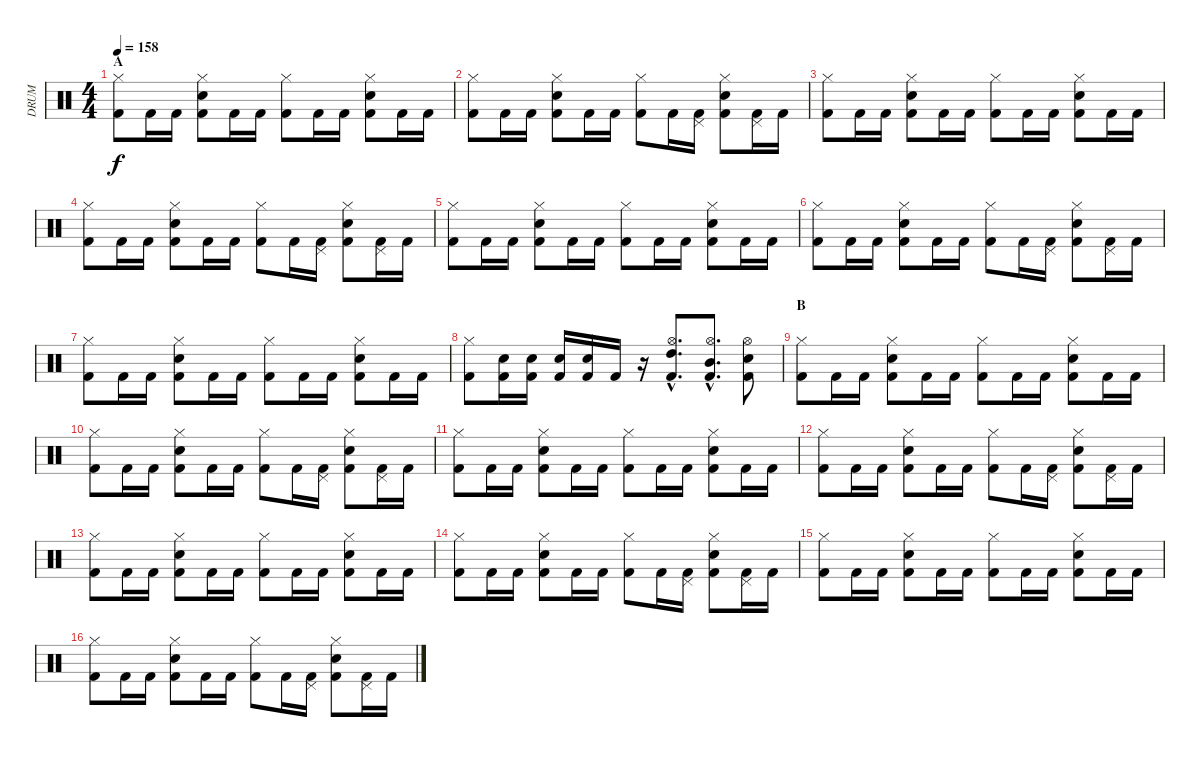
\track ("DRUM" "DRUM") {instrument percussion}
\staff {score}
\articulation defaults
\ts (4 4)
\section ("" "A")
\tempo 158
\clef neutral
\ks c
("Hi-Hat (closed)" "Kick (hit) 2").8{dy f} "Kick (hit) 2".16 "Kick (hit) 2".16 ("Hi-Hat (closed)" "Snare (hit) 2" "Kick (hit) 2").8 "Kick (hit) 2".16 "Kick (hit) 2".16 ("Hi-Hat (closed)" "Kick (hit) 2").8 "Kick (hit) 2".16 "Kick (hit) 2".16 ("Hi-Hat (closed)" "Snare (hit) 2" "Kick (hit) 2").8 "Kick (hit) 2".16 "Kick (hit) 2".16 |
("Hi-Hat (closed)" "Kick (hit) 2").8 "Kick (hit) 2".16 "Kick (hit) 2".16 ("Hi-Hat (closed)" "Snare (hit) 2" "Kick (hit) 2").8 "Kick (hit) 2".16 "Kick (hit) 2".16 ("Hi-Hat (closed)" "Kick (hit) 2").8 "Kick (hit) 2".16 ("Pedal Hi-Hat (hit)" "Kick (hit) 2").16 ("Hi-Hat (closed)" "Snare (hit) 2" "Kick (hit) 2").8 ("Pedal Hi-Hat (hit)" "Kick (hit) 2").16 "Kick (hit) 2".16 |
("Hi-Hat (closed)" "Kick (hit) 2").8 "Kick (hit) 2".16 "Kick (hit) 2".16 ("Hi-Hat (closed)" "Snare (hit) 2" "Kick (hit) 2").8 "Kick (hit) 2".16 "Kick (hit) 2".16 ("Hi-Hat (closed)" "Kick (hit) 2").8 "Kick (hit) 2".16 "Kick (hit) 2".16 ("Hi-Hat (closed)" "Snare (hit) 2" "Kick (hit) 2").8 "Kick (hit) 2".16 "Kick (hit) 2".16 |
("Hi-Hat (closed)" "Kick (hit) 2").8 "Kick (hit) 2".16 "Kick (hit) 2".16 ("Hi-Hat (closed)" "Snare (hit) 2" "Kick (hit) 2").8 "Kick (hit) 2".16 "Kick (hit) 2".16 ("Hi-Hat (closed)" "Kick (hit) 2").8 "Kick (hit) 2".16 ("Pedal Hi-Hat (hit)" "Kick (hit) 2").16 ("Hi-Hat (closed)" "Snare (hit) 2" "Kick (hit) 2").8 ("Pedal Hi-Hat (hit)" "Kick (hit) 2").16 "Kick (hit) 2".16 |
("Hi-Hat (closed)" "Kick (hit) 2").8 "Kick (hit) 2".16 "Kick (hit) 2".16 ("Hi-Hat (closed)" "Snare (hit) 2" "Kick (hit) 2").8 "Kick (hit) 2".16 "Kick (hit) 2".16 ("Hi-Hat (closed)" "Kick (hit) 2").8 "Kick (hit) 2".16 "Kick (hit) 2".16 ("Hi-Hat (closed)" "Snare (hit) 2" "Kick (hit) 2").8 "Kick (hit) 2".16 "Kick (hit) 2".16 |
("Hi-Hat (closed)" "Kick (hit) 2").8 "Kick (hit) 2".16 "Kick (hit) 2".16 ("Hi-Hat (closed)" "Snare (hit) 2" "Kick (hit) 2").8 "Kick (hit) 2".16 "Kick (hit) 2".16 ("Hi-Hat (closed)" "Kick (hit) 2").8 "Kick (hit) 2".16 ("Pedal Hi-Hat (hit)" "Kick (hit) 2").16 ("Hi-Hat (closed)" "Snare (hit) 2" "Kick (hit) 2").8 ("Pedal Hi-Hat (hit)" "Kick (hit) 2").16 "Kick (hit) 2".16 |
("Hi-Hat (closed)" "Kick (hit) 2").8 "Kick (hit) 2".16 "Kick (hit) 2".16 ("Hi-Hat (closed)" "Snare (hit) 2" "Kick (hit) 2").8 "Kick (hit) 2".16 "Kick (hit) 2".16 ("Hi-Hat (closed)" "Kick (hit) 2").8 "Kick (hit) 2".16 "Kick (hit) 2".16 ("Hi-Hat (closed)" "Snare (hit) 2" "Kick (hit) 2").8 "Kick (hit) 2".16 "Kick (hit) 2".16 |
("Hi-Hat (closed)" "Kick (hit) 2").8 ("Snare (hit) 2" "Kick (hit) 2").16 ("Snare (hit) 2" "Kick (hit) 2").16 ("Snare (hit) 2" "Kick (hit) 2").16 ("Snare (hit) 2" "Kick (hit) 2").16 "Kick (hit) 2".16 r.16 ("Hi-Hat (open)"{hac} "High Tom (hit)"{hac} "Kick (hit) 2"{hac}).8{d} ("Hi-Hat (open)"{hac} "Mid Tom (hit)"{hac} "Kick (hit) 2"{hac}).8{d} ("Hi-Hat (open)" "Snare (hit) 2" "Kick (hit) 2").8 |
\section ("" "B")
("Hi-Hat (closed)" "Kick (hit) 2").8 "Kick (hit) 2".16 "Kick (hit) 2".16 ("Hi-Hat (closed)" "Snare (hit) 2" "Kick (hit) 2").8 "Kick (hit) 2".16 "Kick (hit) 2".16 ("Hi-Hat (closed)" "Kick (hit) 2").8 "Kick (hit) 2".16 "Kick (hit) 2".16 ("Hi-Hat (closed)" "Snare (hit) 2" "Kick (hit) 2").8 "Kick (hit) 2".16 "Kick (hit) 2".16 |
("Hi-Hat (closed)" "Kick (hit) 2").8 "Kick (hit) 2".16 "Kick (hit) 2".16 ("Hi-Hat (closed)" "Snare (hit) 2" "Kick (hit) 2").8 "Kick (hit) 2".16 "Kick (hit) 2".16 ("Hi-Hat (closed)" "Kick (hit) 2").8 "Kick (hit) 2".16 ("Pedal Hi-Hat (hit)" "Kick (hit) 2").16 ("Hi-Hat (closed)" "Snare (hit) 2" "Kick (hit) 2").8 ("Pedal Hi-Hat (hit)" "Kick (hit) 2").16 "Kick (hit) 2".16 |
("Hi-Hat (closed)" "Kick (hit) 2").8 "Kick (hit) 2".16 "Kick (hit) 2".16 ("Hi-Hat (closed)" "Snare (hit) 2" "Kick (hit) 2").8 "Kick (hit) 2".16 "Kick (hit) 2".16 ("Hi-Hat (closed)" "Kick (hit) 2").8 "Kick (hit) 2".16 "Kick (hit) 2".16 ("Hi-Hat (closed)" "Snare (hit) 2" "Kick (hit) 2").8 "Kick (hit) 2".16 "Kick (hit) 2".16 |
("Hi-Hat (closed)" "Kick (hit) 2").8 "Kick (hit) 2".16 "Kick (hit) 2".16 ("Hi-Hat (closed)" "Snare (hit) 2" "Kick (hit) 2").8 "Kick (hit) 2".16 "Kick (hit) 2".16 ("Hi-Hat (closed)" "Kick (hit) 2").8 "Kick (hit) 2".16 ("Pedal Hi-Hat (hit)" "Kick (hit) 2").16 ("Hi-Hat (closed)" "Snare (hit) 2" "Kick (hit) 2").8 ("Pedal Hi-Hat (hit)" "Kick (hit) 2").16 "Kick (hit) 2".16 |
("Hi-Hat (closed)" "Kick (hit) 2").8 "Kick (hit) 2".16 "Kick (hit) 2".16 ("Hi-Hat (closed)" "Snare (hit) 2" "Kick (hit) 2").8 "Kick (hit) 2".16 "Kick (hit) 2".16 ("Hi-Hat (closed)" "Kick (hit) 2").8 "Kick (hit) 2".16 "Kick (hit) 2".16 ("Hi-Hat (closed)" "Snare (hit) 2" "Kick (hit) 2").8 "Kick (hit) 2".16 "Kick (hit) 2".16 |
("Hi-Hat (closed)" "Kick (hit) 2").8 "Kick (hit) 2".16 "Kick (hit) 2".16 ("Hi-Hat (closed)" "Snare (hit) 2" "Kick (hit) 2").8 "Kick (hit) 2".16 "Kick (hit) 2".16 ("Hi-Hat (closed)" "Kick (hit) 2").8 "Kick (hit) 2".16 ("Pedal Hi-Hat (hit)" "Kick (hit) 2").16 ("Hi-Hat (closed)" "Snare (hit) 2" "Kick (hit) 2").8 ("Pedal Hi-Hat (hit)" "Kick (hit) 2").16 "Kick (hit) 2".16 |
("Hi-Hat (closed)" "Kick (hit) 2").8 "Kick (hit) 2".16 "Kick (hit) 2".16 ("Hi-Hat (closed)" "Snare (hit) 2" "Kick (hit) 2").8 "Kick (hit) 2".16 "Kick (hit) 2".16 ("Hi-Hat (closed)" "Kick (hit) 2").8 "Kick (hit) 2".16 "Kick (hit) 2".16 ("Hi-Hat (closed)" "Snare (hit) 2" "Kick (hit) 2").8 "Kick (hit) 2".16 "Kick (hit) 2".16 |
("Hi-Hat (closed)" "Kick (hit) 2").8 "Kick (hit) 2".16 "Kick (hit) 2".16 ("Hi-Hat (closed)" "Snare (hit) 2" "Kick (hit) 2").8 "Kick (hit) 2".16 "Kick (hit) 2".16 ("Hi-Hat (closed)" "Kick (hit) 2").8 "Kick (hit) 2".16 ("Pedal Hi-Hat (hit)" "Kick (hit) 2").16 ("Hi-Hat (closed)" "Snare (hit) 2" "Kick (hit) 2").8 ("Pedal Hi-Hat (hit)" "Kick (hit) 2").16 "Kick (hit) 2".16
